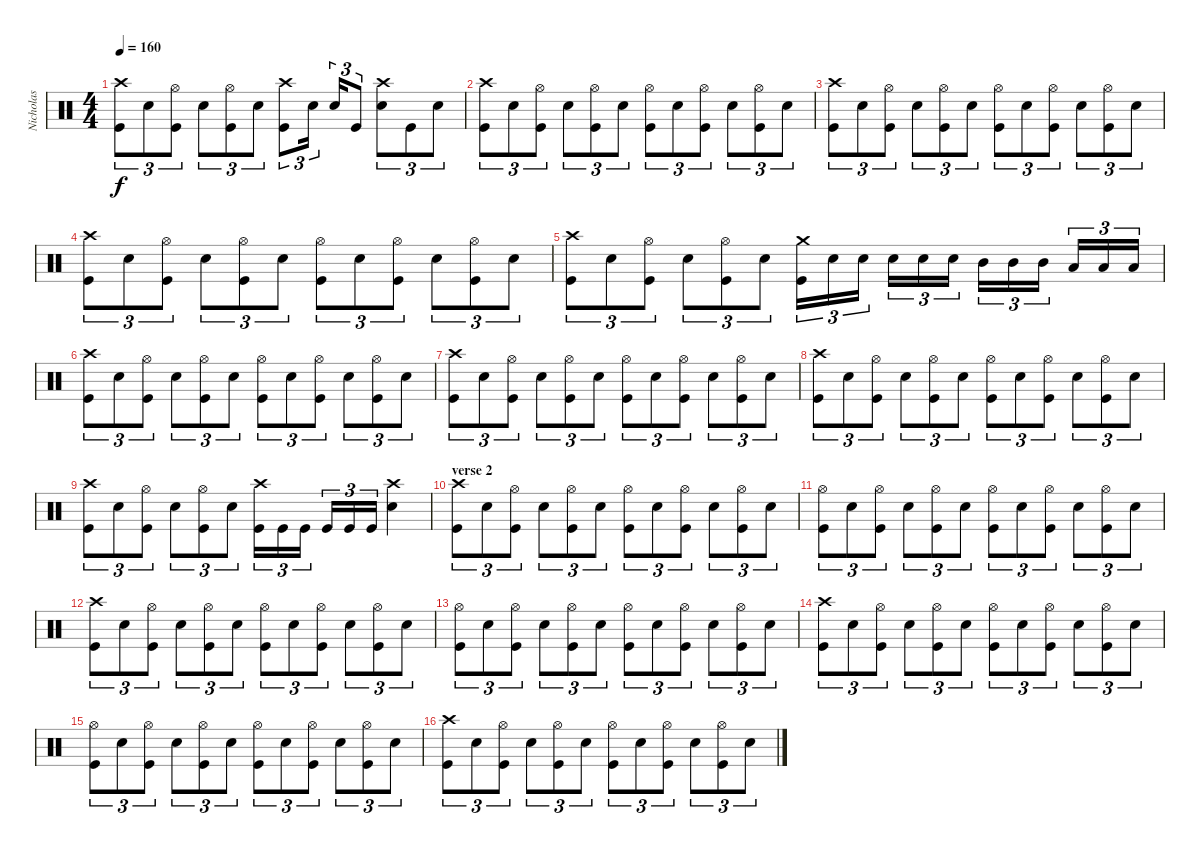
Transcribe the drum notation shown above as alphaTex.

\track ("Nicholas" "Nicholas") {instrument percussion}
\staff {score}
\articulation defaults
\ts (4 4)
\tempo 160
\clef neutral
\ks c
("Crash high (hit)" "Kick (hit)").8{tu (3 2) dy f} "Electric Snare (hit)".8{tu (3 2)} ("Hi-Hat (open)" "Kick (hit)").8{tu (3 2)} "Electric Snare (hit)".8{tu (3 2)} ("Hi-Hat (open)" "Kick (hit)").8{tu (3 2)} "Electric Snare (hit)".8{tu (3 2)} ("Crash high (hit)" "Kick (hit)").8{tu (3 2)} "Electric Snare (hit)".16{tu (3 2)} "Electric Snare (hit)".16{tu (3 2)} "Kick (hit)".8{tu (3 2)} ("Crash high (hit)" "Electric Snare (hit)").8{tu (3 2)} "Kick (hit)".8{tu (3 2)} "Electric Snare (hit)".8{tu (3 2)} |
("Crash high (hit)" "Kick (hit)").8{tu (3 2)} "Electric Snare (hit)".8{tu (3 2)} ("Hi-Hat (open)" "Kick (hit)").8{tu (3 2)} "Electric Snare (hit)".8{tu (3 2)} ("Hi-Hat (open)" "Kick (hit)").8{tu (3 2)} "Electric Snare (hit)".8{tu (3 2)} ("Hi-Hat (open)" "Kick (hit)").8{tu (3 2)} "Electric Snare (hit)".8{tu (3 2)} ("Hi-Hat (open)" "Kick (hit)").8{tu (3 2)} "Electric Snare (hit)".8{tu (3 2)} ("Hi-Hat (open)" "Kick (hit)").8{tu (3 2)} "Electric Snare (hit)".8{tu (3 2)} |
("Crash high (hit)" "Kick (hit)").8{tu (3 2)} "Electric Snare (hit)".8{tu (3 2)} ("Hi-Hat (open)" "Kick (hit)").8{tu (3 2)} "Electric Snare (hit)".8{tu (3 2)} ("Hi-Hat (open)" "Kick (hit)").8{tu (3 2)} "Electric Snare (hit)".8{tu (3 2)} ("Hi-Hat (open)" "Kick (hit)").8{tu (3 2)} "Electric Snare (hit)".8{tu (3 2)} ("Hi-Hat (open)" "Kick (hit)").8{tu (3 2)} "Electric Snare (hit)".8{tu (3 2)} ("Hi-Hat (open)" "Kick (hit)").8{tu (3 2)} "Electric Snare (hit)".8{tu (3 2)} |
("Crash high (hit)" "Kick (hit)").8{tu (3 2)} "Electric Snare (hit)".8{tu (3 2)} ("Hi-Hat (open)" "Kick (hit)").8{tu (3 2)} "Electric Snare (hit)".8{tu (3 2)} ("Hi-Hat (open)" "Kick (hit)").8{tu (3 2)} "Electric Snare (hit)".8{tu (3 2)} ("Hi-Hat (open)" "Kick (hit)").8{tu (3 2)} "Electric Snare (hit)".8{tu (3 2)} ("Hi-Hat (open)" "Kick (hit)").8{tu (3 2)} "Electric Snare (hit)".8{tu (3 2)} ("Hi-Hat (open)" "Kick (hit)").8{tu (3 2)} "Electric Snare (hit)".8{tu (3 2)} |
("Crash high (hit)" "Kick (hit)").8{tu (3 2)} "Electric Snare (hit)".8{tu (3 2)} ("Hi-Hat (open)" "Kick (hit)").8{tu (3 2)} "Electric Snare (hit)".8{tu (3 2)} ("Hi-Hat (open)" "Kick (hit)").8{tu (3 2)} "Electric Snare (hit)".8{tu (3 2)} ("Crash medium (hit)" "Kick (hit)").16{tu (3 2)} "Electric Snare (hit)".16{tu (3 2)} "Electric Snare (hit)".16{tu (3 2)} "Electric Snare (hit)".16{tu (3 2)} "Electric Snare (hit)".16{tu (3 2)} "Electric Snare (hit)".16{tu (3 2)} "Mid Tom (hit)".16{tu (3 2)} "Mid Tom (hit)".16{tu (3 2)} "Mid Tom (hit)".16{tu (3 2)} "Low Tom (hit)".16{tu (3 2)} "Low Tom (hit)".16{tu (3 2)} "Low Tom (hit)".16{tu (3 2)} |
("Crash high (hit)" "Kick (hit)").8{tu (3 2)} "Electric Snare (hit)".8{tu (3 2)} ("Hi-Hat (open)" "Kick (hit)").8{tu (3 2)} "Electric Snare (hit)".8{tu (3 2)} ("Hi-Hat (open)" "Kick (hit)").8{tu (3 2)} "Electric Snare (hit)".8{tu (3 2)} ("Hi-Hat (open)" "Kick (hit)").8{tu (3 2)} "Electric Snare (hit)".8{tu (3 2)} ("Hi-Hat (open)" "Kick (hit)").8{tu (3 2)} "Electric Snare (hit)".8{tu (3 2)} ("Hi-Hat (open)" "Kick (hit)").8{tu (3 2)} "Electric Snare (hit)".8{tu (3 2)} |
("Crash high (hit)" "Kick (hit)").8{tu (3 2)} "Electric Snare (hit)".8{tu (3 2)} ("Hi-Hat (open)" "Kick (hit)").8{tu (3 2)} "Electric Snare (hit)".8{tu (3 2)} ("Hi-Hat (open)" "Kick (hit)").8{tu (3 2)} "Electric Snare (hit)".8{tu (3 2)} ("Hi-Hat (open)" "Kick (hit)").8{tu (3 2)} "Electric Snare (hit)".8{tu (3 2)} ("Hi-Hat (open)" "Kick (hit)").8{tu (3 2)} "Electric Snare (hit)".8{tu (3 2)} ("Hi-Hat (open)" "Kick (hit)").8{tu (3 2)} "Electric Snare (hit)".8{tu (3 2)} |
("Crash high (hit)" "Kick (hit)").8{tu (3 2)} "Electric Snare (hit)".8{tu (3 2)} ("Hi-Hat (open)" "Kick (hit)").8{tu (3 2)} "Electric Snare (hit)".8{tu (3 2)} ("Hi-Hat (open)" "Kick (hit)").8{tu (3 2)} "Electric Snare (hit)".8{tu (3 2)} ("Hi-Hat (open)" "Kick (hit)").8{tu (3 2)} "Electric Snare (hit)".8{tu (3 2)} ("Hi-Hat (open)" "Kick (hit)").8{tu (3 2)} "Electric Snare (hit)".8{tu (3 2)} ("Hi-Hat (open)" "Kick (hit)").8{tu (3 2)} "Electric Snare (hit)".8{tu (3 2)} |
("Crash high (hit)" "Kick (hit)").8{tu (3 2)} "Electric Snare (hit)".8{tu (3 2)} ("Hi-Hat (open)" "Kick (hit)").8{tu (3 2)} "Electric Snare (hit)".8{tu (3 2)} ("Hi-Hat (open)" "Kick (hit)").8{tu (3 2)} "Electric Snare (hit)".8{tu (3 2)} ("Crash high (hit)" "Kick (hit)").16{tu (3 2)} "Kick (hit)".16{tu (3 2)} "Kick (hit)".16{tu (3 2)} "Kick (hit)".16{tu (3 2)} "Kick (hit)".16{tu (3 2)} "Kick (hit)".16{tu (3 2)} ("Crash high (hit)" "Electric Snare (hit)").4 |
\section ("" "verse 2")
("Crash high (hit)" "Kick (hit)").8{tu (3 2)} "Electric Snare (hit)".8{tu (3 2)} ("Hi-Hat (open)" "Kick (hit)").8{tu (3 2)} "Electric Snare (hit)".8{tu (3 2)} ("Hi-Hat (open)" "Kick (hit)").8{tu (3 2)} "Electric Snare (hit)".8{tu (3 2)} ("Hi-Hat (open)" "Kick (hit)").8{tu (3 2)} "Electric Snare (hit)".8{tu (3 2)} ("Hi-Hat (open)" "Kick (hit)").8{tu (3 2)} "Electric Snare (hit)".8{tu (3 2)} ("Hi-Hat (open)" "Kick (hit)").8{tu (3 2)} "Electric Snare (hit)".8{tu (3 2)} |
("Hi-Hat (open)" "Kick (hit)").8{tu (3 2)} "Electric Snare (hit)".8{tu (3 2)} ("Hi-Hat (open)" "Kick (hit)").8{tu (3 2)} "Electric Snare (hit)".8{tu (3 2)} ("Hi-Hat (open)" "Kick (hit)").8{tu (3 2)} "Electric Snare (hit)".8{tu (3 2)} ("Hi-Hat (open)" "Kick (hit)").8{tu (3 2)} "Electric Snare (hit)".8{tu (3 2)} ("Hi-Hat (open)" "Kick (hit)").8{tu (3 2)} "Electric Snare (hit)".8{tu (3 2)} ("Hi-Hat (open)" "Kick (hit)").8{tu (3 2)} "Electric Snare (hit)".8{tu (3 2)} |
("Crash high (hit)" "Kick (hit)").8{tu (3 2)} "Electric Snare (hit)".8{tu (3 2)} ("Hi-Hat (open)" "Kick (hit)").8{tu (3 2)} "Electric Snare (hit)".8{tu (3 2)} ("Hi-Hat (open)" "Kick (hit)").8{tu (3 2)} "Electric Snare (hit)".8{tu (3 2)} ("Hi-Hat (open)" "Kick (hit)").8{tu (3 2)} "Electric Snare (hit)".8{tu (3 2)} ("Hi-Hat (open)" "Kick (hit)").8{tu (3 2)} "Electric Snare (hit)".8{tu (3 2)} ("Hi-Hat (open)" "Kick (hit)").8{tu (3 2)} "Electric Snare (hit)".8{tu (3 2)} |
("Hi-Hat (open)" "Kick (hit)").8{tu (3 2)} "Electric Snare (hit)".8{tu (3 2)} ("Hi-Hat (open)" "Kick (hit)").8{tu (3 2)} "Electric Snare (hit)".8{tu (3 2)} ("Hi-Hat (open)" "Kick (hit)").8{tu (3 2)} "Electric Snare (hit)".8{tu (3 2)} ("Hi-Hat (open)" "Kick (hit)").8{tu (3 2)} "Electric Snare (hit)".8{tu (3 2)} ("Hi-Hat (open)" "Kick (hit)").8{tu (3 2)} "Electric Snare (hit)".8{tu (3 2)} ("Hi-Hat (open)" "Kick (hit)").8{tu (3 2)} "Electric Snare (hit)".8{tu (3 2)} |
("Crash high (hit)" "Kick (hit)").8{tu (3 2)} "Electric Snare (hit)".8{tu (3 2)} ("Hi-Hat (open)" "Kick (hit)").8{tu (3 2)} "Electric Snare (hit)".8{tu (3 2)} ("Hi-Hat (open)" "Kick (hit)").8{tu (3 2)} "Electric Snare (hit)".8{tu (3 2)} ("Hi-Hat (open)" "Kick (hit)").8{tu (3 2)} "Electric Snare (hit)".8{tu (3 2)} ("Hi-Hat (open)" "Kick (hit)").8{tu (3 2)} "Electric Snare (hit)".8{tu (3 2)} ("Hi-Hat (open)" "Kick (hit)").8{tu (3 2)} "Electric Snare (hit)".8{tu (3 2)} |
("Hi-Hat (open)" "Kick (hit)").8{tu (3 2)} "Electric Snare (hit)".8{tu (3 2)} ("Hi-Hat (open)" "Kick (hit)").8{tu (3 2)} "Electric Snare (hit)".8{tu (3 2)} ("Hi-Hat (open)" "Kick (hit)").8{tu (3 2)} "Electric Snare (hit)".8{tu (3 2)} ("Hi-Hat (open)" "Kick (hit)").8{tu (3 2)} "Electric Snare (hit)".8{tu (3 2)} ("Hi-Hat (open)" "Kick (hit)").8{tu (3 2)} "Electric Snare (hit)".8{tu (3 2)} ("Hi-Hat (open)" "Kick (hit)").8{tu (3 2)} "Electric Snare (hit)".8{tu (3 2)} |
("Crash high (hit)" "Kick (hit)").8{tu (3 2)} "Electric Snare (hit)".8{tu (3 2)} ("Hi-Hat (open)" "Kick (hit)").8{tu (3 2)} "Electric Snare (hit)".8{tu (3 2)} ("Hi-Hat (open)" "Kick (hit)").8{tu (3 2)} "Electric Snare (hit)".8{tu (3 2)} ("Hi-Hat (open)" "Kick (hit)").8{tu (3 2)} "Electric Snare (hit)".8{tu (3 2)} ("Hi-Hat (open)" "Kick (hit)").8{tu (3 2)} "Electric Snare (hit)".8{tu (3 2)} ("Hi-Hat (open)" "Kick (hit)").8{tu (3 2)} "Electric Snare (hit)".8{tu (3 2)}
